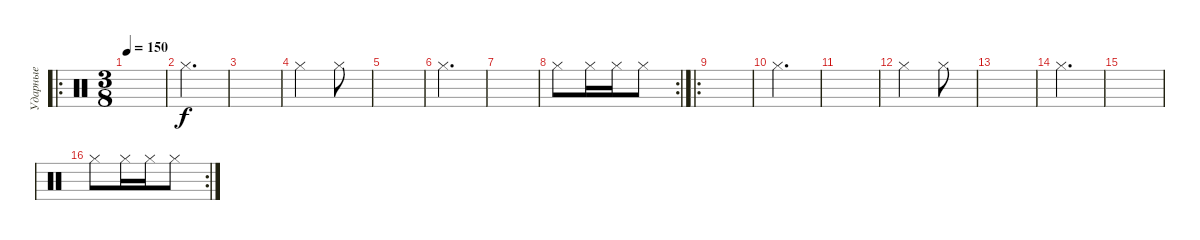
\track ("Ударные" "Ударные") {instrument percussion}
\staff {score}
\articulation defaults
\ro
\ts (3 8)
\tempo 150
\clef neutral
\ks c
|
"Hi-Hat (closed)".4{d} |
|
"Hi-Hat (closed)".4 "Hi-Hat (closed)".8 |
|
"Hi-Hat (closed)".4{d} |
|
\rc 2 "Hi-Hat (closed)".8 "Hi-Hat (closed)".16 "Hi-Hat (closed)".16 "Hi-Hat (closed)".8
|
\ro
|
"Hi-Hat (closed)".4{d} |
|
"Hi-Hat (closed)".4 "Hi-Hat (closed)".8 |
|
"Hi-Hat (closed)".4{d} |
|
\rc 2 "Hi-Hat (closed)".8 "Hi-Hat (closed)".16 "Hi-Hat (closed)".16 "Hi-Hat (closed)".8
